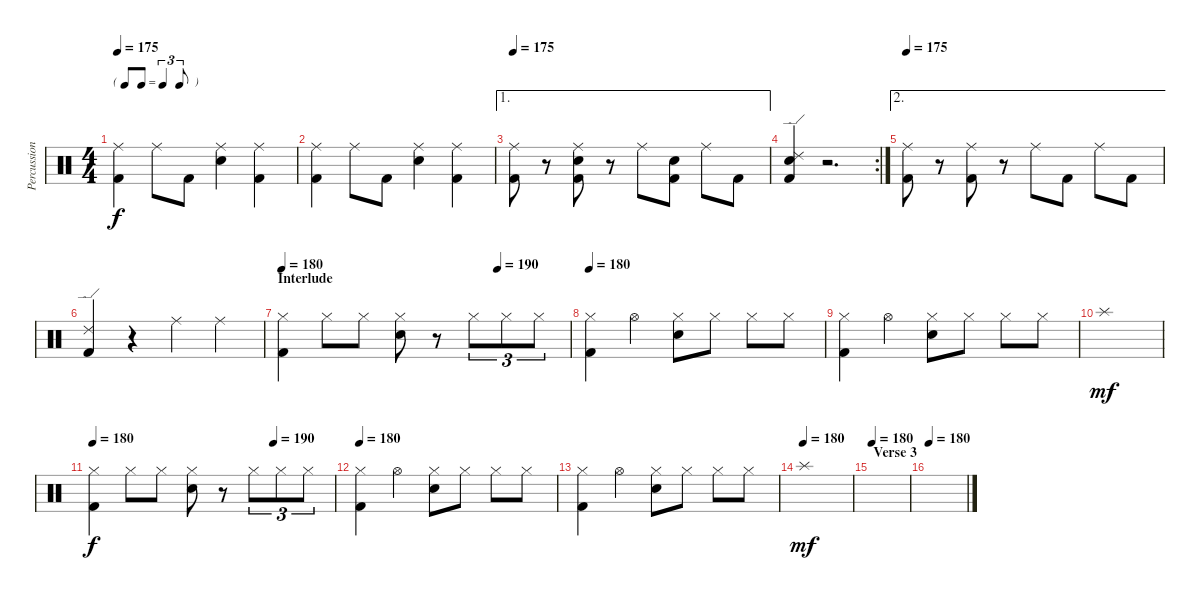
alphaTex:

\track ("Percussion" "Percussion") {instrument percussion}
\staff {score}
\articulation defaults
\ts (4 4)
\tf triplet8th
\tempo 175
\clef neutral
\ks c
("Ride (middle)" "Kick (hit) 2").4{dy f} "Ride (middle)".8 "Kick (hit) 2".8 ("Ride (middle)" "Electric Snare (hit)").4 ("Ride (middle)" "Kick (hit) 2").4 |
("Ride (middle)" "Kick (hit) 2").4 "Ride (middle)".8 "Kick (hit) 2".8 ("Ride (middle)" "Electric Snare (hit)").4 ("Ride (middle)" "Kick (hit) 2").4 |
\ae 1
\tempo 175
("Ride (middle)" "Kick (hit) 2").8 r.8 ("Ride (middle)" "Electric Snare (hit)" "Kick (hit) 2").8 r.8 "Ride (middle)".8 ("Electric Snare (hit)" "Kick (hit) 2").8 "Ride (middle)".8 "Kick (hit) 2".8 |
\rc 2
("Ride (edge) 2" "Electric Snare (hit)" "Kick (hit) 2").4 r.2{d} |
\ae 2
\tempo 175
("Ride (middle)" "Kick (hit) 2").8 r.8 ("Ride (middle)" "Kick (hit) 2").8 r.8 "Ride (middle)".8 "Kick (hit) 2".8 "Ride (middle)".8 "Kick (hit) 2".8 |
("Ride (edge) 2" "Kick (hit) 2").4 r.4 "Ride (middle)".4 "Ride (middle)".4 |
\section ("" "Interlude")
\tempo 180
\tempo (190 0.75)
("Hi-Hat (closed)" "Kick (hit) 2").4 "Hi-Hat (closed)".8 "Hi-Hat (closed)".8 ("Hi-Hat (closed)" "Electric Snare (hit)").8 r.8 "Hi-Hat (closed)".8{tu (3 2)} "Hi-Hat (closed)".8{tu (3 2)} "Hi-Hat (closed)".8{tu (3 2)} |
\tempo 180
("Hi-Hat (closed)" "Kick (hit) 2").4 "Hi-Hat (open)".4 ("Hi-Hat (closed)" "Electric Snare (hit)").8 "Hi-Hat (closed)".8 "Hi-Hat (closed)".8 "Hi-Hat (closed)".8 |
("Hi-Hat (closed)" "Kick (hit) 2").4 "Hi-Hat (open)".4 ("Hi-Hat (closed)" "Electric Snare (hit)").8 "Hi-Hat (closed)".8 "Hi-Hat (closed)".8 "Hi-Hat (closed)".8 |
"Splash (hit)".1{dy mf} |
\tempo 180
\tempo (190 0.75)
("Hi-Hat (closed)" "Kick (hit) 2").4{dy f} "Hi-Hat (closed)".8 "Hi-Hat (closed)".8 ("Hi-Hat (closed)" "Electric Snare (hit)").8 r.8 "Hi-Hat (closed)".8{tu (3 2)} "Hi-Hat (closed)".8{tu (3 2)} "Hi-Hat (closed)".8{tu (3 2)} |
\tempo 180
("Hi-Hat (closed)" "Kick (hit) 2").4 "Hi-Hat (open)".4 ("Hi-Hat (closed)" "Electric Snare (hit)").8 "Hi-Hat (closed)".8 "Hi-Hat (closed)".8 "Hi-Hat (closed)".8 |
("Hi-Hat (closed)" "Kick (hit) 2").4 "Hi-Hat (open)".4 ("Hi-Hat (closed)" "Electric Snare (hit)").8 "Hi-Hat (closed)".8 "Hi-Hat (closed)".8 "Hi-Hat (closed)".8 |
\tempo (180)
"Splash (hit)".1{dy mf} |
\section ("" "Verse 3")
\tempo 180
|
\tempo 180
